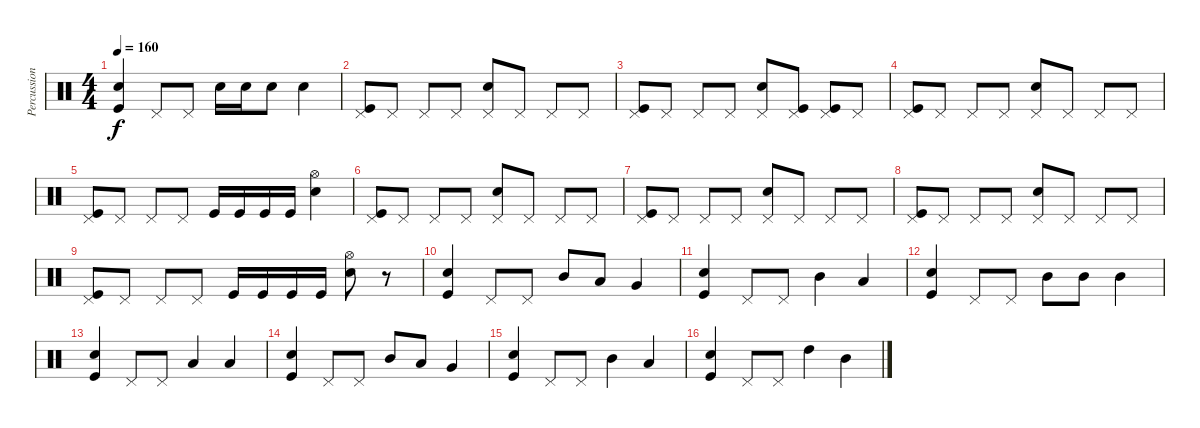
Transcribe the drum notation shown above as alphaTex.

\track ("Percussion" "Percussion") {instrument percussion}
\staff {score}
\articulation defaults
\ts (4 4)
\tempo 160
\clef neutral
\ks c
("Electric Snare (hit)" "Kick (hit)").4{dy f} "Pedal Hi-Hat (hit)".8 "Pedal Hi-Hat (hit)".8 "Electric Snare (hit)".16 "Electric Snare (hit)".16 "Electric Snare (hit)".8 "Electric Snare (hit)".4 |
("Pedal Hi-Hat (hit)" "Kick (hit)").8 "Pedal Hi-Hat (hit)".8 "Pedal Hi-Hat (hit)".8 "Pedal Hi-Hat (hit)".8 ("Pedal Hi-Hat (hit)" "Electric Snare (hit)").8 "Pedal Hi-Hat (hit)".8 "Pedal Hi-Hat (hit)".8 "Pedal Hi-Hat (hit)".8 |
("Pedal Hi-Hat (hit)" "Kick (hit)").8 "Pedal Hi-Hat (hit)".8 "Pedal Hi-Hat (hit)".8 "Pedal Hi-Hat (hit)".8 ("Pedal Hi-Hat (hit)" "Electric Snare (hit)").8 ("Pedal Hi-Hat (hit)" "Kick (hit)").8 ("Pedal Hi-Hat (hit)" "Kick (hit)").8 "Pedal Hi-Hat (hit)".8 |
("Pedal Hi-Hat (hit)" "Kick (hit)").8 "Pedal Hi-Hat (hit)".8 "Pedal Hi-Hat (hit)".8 "Pedal Hi-Hat (hit)".8 ("Pedal Hi-Hat (hit)" "Electric Snare (hit)").8 "Pedal Hi-Hat (hit)".8 "Pedal Hi-Hat (hit)".8 "Pedal Hi-Hat (hit)".8 |
("Pedal Hi-Hat (hit)" "Kick (hit)").8 "Pedal Hi-Hat (hit)".8 "Pedal Hi-Hat (hit)".8 "Pedal Hi-Hat (hit)".8 "Kick (hit)".16 "Kick (hit)".16 "Kick (hit)".16 "Kick (hit)".16 ("Hi-Hat (open)" "Electric Snare (hit)").4 |
("Pedal Hi-Hat (hit)" "Kick (hit)").8 "Pedal Hi-Hat (hit)".8 "Pedal Hi-Hat (hit)".8 "Pedal Hi-Hat (hit)".8 ("Pedal Hi-Hat (hit)" "Electric Snare (hit)").8 "Pedal Hi-Hat (hit)".8 "Pedal Hi-Hat (hit)".8 "Pedal Hi-Hat (hit)".8 |
("Pedal Hi-Hat (hit)" "Kick (hit)").8 "Pedal Hi-Hat (hit)".8 "Pedal Hi-Hat (hit)".8 "Pedal Hi-Hat (hit)".8 ("Pedal Hi-Hat (hit)" "Electric Snare (hit)").8 "Pedal Hi-Hat (hit)".8 "Pedal Hi-Hat (hit)".8 "Pedal Hi-Hat (hit)".8 |
("Pedal Hi-Hat (hit)" "Kick (hit)").8 "Pedal Hi-Hat (hit)".8 "Pedal Hi-Hat (hit)".8 "Pedal Hi-Hat (hit)".8 ("Pedal Hi-Hat (hit)" "Electric Snare (hit)").8 "Pedal Hi-Hat (hit)".8 "Pedal Hi-Hat (hit)".8 "Pedal Hi-Hat (hit)".8 |
("Pedal Hi-Hat (hit)" "Kick (hit)").8 "Pedal Hi-Hat (hit)".8 "Pedal Hi-Hat (hit)".8 "Pedal Hi-Hat (hit)".8 "Kick (hit)".16 "Kick (hit)".16 "Kick (hit)".16 "Kick (hit)".16 ("Hi-Hat (open)" "Electric Snare (hit)").8 r.8 |
("Electric Snare (hit)" "Kick (hit)").4 "Pedal Hi-Hat (hit)".8 "Pedal Hi-Hat (hit)".8 "Mid Tom (hit)".8 "Low Tom (hit)".8 "Very Low Tom (hit)".4 |
("Electric Snare (hit)" "Kick (hit)").4 "Pedal Hi-Hat (hit)".8 "Pedal Hi-Hat (hit)".8 "Mid Tom (hit)".4 "Low Tom (hit)".4 |
("Electric Snare (hit)" "Kick (hit)").4 "Pedal Hi-Hat (hit)".8 "Pedal Hi-Hat (hit)".8 "Mid Tom (hit)".8 "Mid Tom (hit)".8 "Mid Tom (hit)".4 |
("Electric Snare (hit)" "Kick (hit)").4 "Pedal Hi-Hat (hit)".8 "Pedal Hi-Hat (hit)".8 "Low Tom (hit)".4 "Low Tom (hit)".4 |
("Electric Snare (hit)" "Kick (hit)").4 "Pedal Hi-Hat (hit)".8 "Pedal Hi-Hat (hit)".8 "Mid Tom (hit)".8 "Low Tom (hit)".8 "Very Low Tom (hit)".4 |
("Electric Snare (hit)" "Kick (hit)").4 "Pedal Hi-Hat (hit)".8 "Pedal Hi-Hat (hit)".8 "Mid Tom (hit)".4 "Low Tom (hit)".4 |
("Electric Snare (hit)" "Kick (hit)").4 "Pedal Hi-Hat (hit)".8 "Pedal Hi-Hat (hit)".8 "High Tom (hit)".4 "Mid Tom (hit)".4
